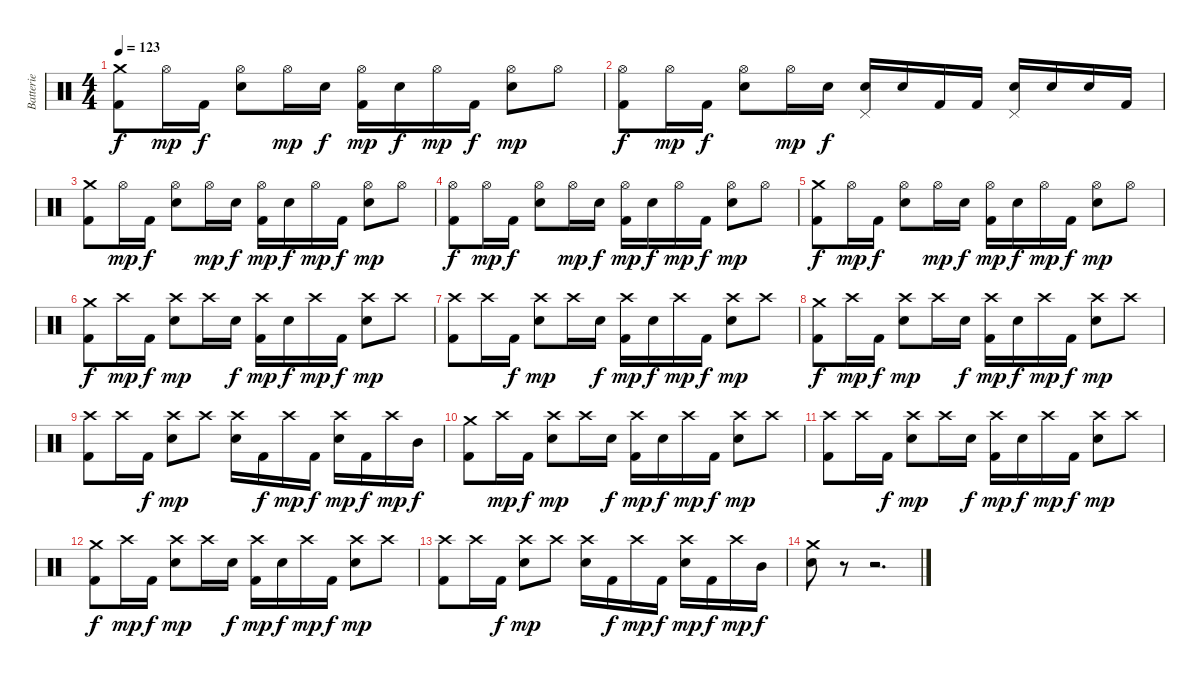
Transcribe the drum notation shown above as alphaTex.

\track ("Batterie" "Batterie") {instrument percussion}
\staff {score}
\articulation defaults
\ts (4 4)
\tempo 123
\clef neutral
\ks c
("Crash medium (hit)" "Kick (hit) 2").8{dy f} "Hi-Hat (open)".16{dy mp} "Kick (hit) 2".16{dy f} ("Hi-Hat (open)" "Snare (hit) 2").8 "Hi-Hat (open)".16{dy mp} "Snare (hit) 2".16{dy f} ("Hi-Hat (open)" "Kick (hit) 2").16{dy mp} "Snare (hit) 2".16{dy f} "Hi-Hat (open)".16{dy mp} "Kick (hit) 2".16{dy f} ("Hi-Hat (open)" "Snare (hit) 2").8{dy mp} "Hi-Hat (open)".8 |
("Hi-Hat (open)" "Kick (hit) 2").8{dy f} "Hi-Hat (open)".16{dy mp} "Kick (hit) 2".16{dy f} ("Hi-Hat (open)" "Snare (hit) 2").8 "Hi-Hat (open)".16{dy mp} "Snare (hit) 2".16{dy f} ("Pedal Hi-Hat (hit)" "Snare (hit) 2").16 "Snare (hit) 2".16 "Kick (hit) 2".16 "Kick (hit) 2".16 ("Pedal Hi-Hat (hit)" "Snare (hit) 2").16 "Snare (hit) 2".16 "Snare (hit) 2".16 "Kick (hit) 2".16 |
("Crash medium (hit)" "Kick (hit) 2").8 "Hi-Hat (open)".16{dy mp} "Kick (hit) 2".16{dy f} ("Hi-Hat (open)" "Snare (hit) 2").8 "Hi-Hat (open)".16{dy mp} "Snare (hit) 2".16{dy f} ("Hi-Hat (open)" "Kick (hit) 2").16{dy mp} "Snare (hit) 2".16{dy f} "Hi-Hat (open)".16{dy mp} "Kick (hit) 2".16{dy f} ("Hi-Hat (open)" "Snare (hit) 2").8{dy mp} "Hi-Hat (open)".8 |
("Hi-Hat (open)" "Kick (hit) 2").8{dy f} "Hi-Hat (open)".16{dy mp} "Kick (hit) 2".16{dy f} ("Hi-Hat (open)" "Snare (hit) 2").8 "Hi-Hat (open)".16{dy mp} "Snare (hit) 2".16{dy f} ("Hi-Hat (open)" "Kick (hit) 2").16{dy mp} "Snare (hit) 2".16{dy f} "Hi-Hat (open)".16{dy mp} "Kick (hit) 2".16{dy f} ("Hi-Hat (open)" "Snare (hit) 2").8{dy mp} "Hi-Hat (open)".8 |
("Crash medium (hit)" "Kick (hit) 2").8{dy f} "Hi-Hat (open)".16{dy mp} "Kick (hit) 2".16{dy f} ("Hi-Hat (open)" "Snare (hit) 2").8 "Hi-Hat (open)".16{dy mp} "Snare (hit) 2".16{dy f} ("Hi-Hat (open)" "Kick (hit) 2").16{dy mp} "Snare (hit) 2".16{dy f} "Hi-Hat (open)".16{dy mp} "Kick (hit) 2".16{dy f} ("Hi-Hat (open)" "Snare (hit) 2").8{dy mp} "Hi-Hat (open)".8 |
("Crash medium (hit)" "Kick (hit) 2").8{dy f} "Crash high (hit)".16{dy mp} "Kick (hit) 2".16{dy f} ("Crash high (hit)" "Snare (hit) 2").8{dy mp} "Crash high (hit)".16 "Snare (hit) 2".16{dy f} ("Crash high (hit)" "Kick (hit) 2").16{dy mp} "Snare (hit) 2".16{dy f} "Crash high (hit)".16{dy mp} "Kick (hit) 2".16{dy f} ("Crash high (hit)" "Snare (hit) 2").8{dy mp} "Crash high (hit)".8 |
("Crash high (hit)" "Kick (hit) 2").8 "Crash high (hit)".16 "Kick (hit) 2".16{dy f} ("Crash high (hit)" "Snare (hit) 2").8{dy mp} "Crash high (hit)".16 "Snare (hit) 2".16{dy f} ("Crash high (hit)" "Kick (hit) 2").16{dy mp} "Snare (hit) 2".16{dy f} "Crash high (hit)".16{dy mp} "Kick (hit) 2".16{dy f} ("Crash high (hit)" "Snare (hit) 2").8{dy mp} "Crash high (hit)".8 |
("Crash medium (hit)" "Kick (hit) 2").8{dy f} "Crash high (hit)".16{dy mp} "Kick (hit) 2".16{dy f} ("Crash high (hit)" "Snare (hit) 2").8{dy mp} "Crash high (hit)".16 "Snare (hit) 2".16{dy f} ("Crash high (hit)" "Kick (hit) 2").16{dy mp} "Snare (hit) 2".16{dy f} "Crash high (hit)".16{dy mp} "Kick (hit) 2".16{dy f} ("Crash high (hit)" "Snare (hit) 2").8{dy mp} "Crash high (hit)".8 |
("Crash high (hit)" "Kick (hit) 2").8 "Crash high (hit)".16 "Kick (hit) 2".16{dy f} ("Crash high (hit)" "Snare (hit) 2").8{dy mp} "Crash high (hit)".8 ("Crash high (hit)" "Snare (hit) 2").16 "Kick (hit) 2".16{dy f} "Crash high (hit)".16{dy mp} "Kick (hit) 2".16{dy f} ("Crash high (hit)" "Snare (hit) 2").16{dy mp} "Kick (hit) 2".16{dy f} "Crash high (hit)".16{dy mp} "Mid Tom (hit)".16{dy f} |
("Crash medium (hit)" "Kick (hit) 2").8 "Crash high (hit)".16{dy mp} "Kick (hit) 2".16{dy f} ("Crash high (hit)" "Snare (hit) 2").8{dy mp} "Crash high (hit)".16 "Snare (hit) 2".16{dy f} ("Crash high (hit)" "Kick (hit) 2").16{dy mp} "Snare (hit) 2".16{dy f} "Crash high (hit)".16{dy mp} "Kick (hit) 2".16{dy f} ("Crash high (hit)" "Snare (hit) 2").8{dy mp} "Crash high (hit)".8 |
("Crash high (hit)" "Kick (hit) 2").8 "Crash high (hit)".16 "Kick (hit) 2".16{dy f} ("Crash high (hit)" "Snare (hit) 2").8{dy mp} "Crash high (hit)".16 "Snare (hit) 2".16{dy f} ("Crash high (hit)" "Kick (hit) 2").16{dy mp} "Snare (hit) 2".16{dy f} "Crash high (hit)".16{dy mp} "Kick (hit) 2".16{dy f} ("Crash high (hit)" "Snare (hit) 2").8{dy mp} "Crash high (hit)".8 |
("Crash medium (hit)" "Kick (hit) 2").8{dy f} "Crash high (hit)".16{dy mp} "Kick (hit) 2".16{dy f} ("Crash high (hit)" "Snare (hit) 2").8{dy mp} "Crash high (hit)".16 "Snare (hit) 2".16{dy f} ("Crash high (hit)" "Kick (hit) 2").16{dy mp} "Snare (hit) 2".16{dy f} "Crash high (hit)".16{dy mp} "Kick (hit) 2".16{dy f} ("Crash high (hit)" "Snare (hit) 2").8{dy mp} "Crash high (hit)".8 |
("Crash high (hit)" "Kick (hit) 2").8 "Crash high (hit)".16 "Kick (hit) 2".16{dy f} ("Crash high (hit)" "Snare (hit) 2").8{dy mp} "Crash high (hit)".8 ("Crash high (hit)" "Snare (hit) 2").16 "Kick (hit) 2".16{dy f} "Crash high (hit)".16{dy mp} "Kick (hit) 2".16{dy f} ("Crash high (hit)" "Snare (hit) 2").16{dy mp} "Kick (hit) 2".16{dy f} "Crash high (hit)".16{dy mp} "Mid Tom (hit)".16{dy f} |
("Crash medium (hit)" "Snare (hit) 2").8 r.8 r.2{d}
